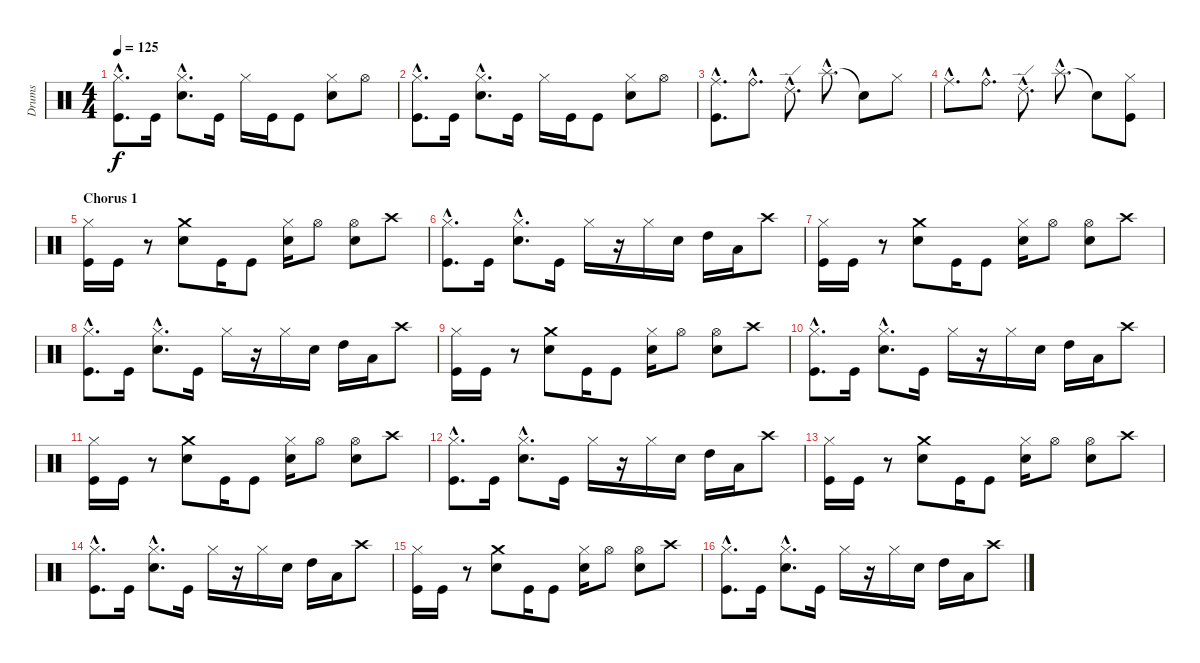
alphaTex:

\track ("Drums" "Drums") {instrument percussion}
\staff {score}
\articulation defaults
\ts (4 4)
\tempo 125
\clef neutral
\ks c
("Hi-Hat (closed)"{hac} "Kick (hit)"{hac}).8{d dy f} "Kick (hit)".16 ("Hi-Hat (closed)"{hac} "Electric Snare (hit)"{hac}).8{d} "Kick (hit)".16 "Hi-Hat (closed)".16 "Kick (hit)".16 "Kick (hit)".8 ("Hi-Hat (closed)" "Electric Snare (hit)").8 "Hi-Hat (open)".8 |
("Hi-Hat (closed)"{hac} "Kick (hit)"{hac}).8{d} "Kick (hit)".16 ("Hi-Hat (closed)"{hac} "Electric Snare (hit)"{hac}).8{d} "Kick (hit)".16 "Hi-Hat (closed)".16 "Kick (hit)".16 "Kick (hit)".8 ("Hi-Hat (closed)" "Electric Snare (hit)").8 "Hi-Hat (open)".8 |
("Ride (middle)"{hac} "Kick (hit)"{hac}).8{d} "Ride (bell)"{hac}.8{d} "Ride (edge) 2"{hac}.8{d} "Splash (hit)"{hac}.8{d} "Snare (hit)"{t}.8 "Hi-Hat (closed)".8 |
"Ride (middle)"{hac}.8{d} "Ride (bell)"{hac}.8{d} "Ride (edge) 2"{hac}.8{d} "Splash (hit)"{hac}.8{d} "Snare (hit)"{t}.8 ("Hi-Hat (closed)" "Kick (hit)").8 |
\section ("" "Chorus 1")
("Hi-Hat (closed)" "Kick (hit)").16 "Kick (hit)".16 r.8 ("Crash medium (hit)" "Electric Snare (hit)").8 "Kick (hit)".16 "Kick (hit)".8 ("Hi-Hat (closed)" "Electric Snare (hit)").16 "Hi-Hat (open)".8 ("Hi-Hat (open)" "Electric Snare (hit)").8 "Crash high (hit)".8 |
("Hi-Hat (closed)"{hac} "Kick (hit)"{hac}).8{d} "Kick (hit)".16 ("Hi-Hat (closed)"{hac} "Electric Snare (hit)"{hac}).8{d} "Kick (hit)".16 "Hi-Hat (closed)".16 r.16 "Hi-Hat (closed)".16 "Electric Snare (hit)".16 "High Tom (hit)".16 "Low Tom (hit)".16 "Crash high (hit)".8 |
("Hi-Hat (closed)" "Kick (hit)").16 "Kick (hit)".16 r.8 ("Crash medium (hit)" "Electric Snare (hit)").8 "Kick (hit)".16 "Kick (hit)".8 ("Hi-Hat (closed)" "Electric Snare (hit)").16 "Hi-Hat (open)".8 ("Hi-Hat (open)" "Electric Snare (hit)").8 "Crash high (hit)".8 |
("Hi-Hat (closed)"{hac} "Kick (hit)"{hac}).8{d} "Kick (hit)".16 ("Hi-Hat (closed)"{hac} "Electric Snare (hit)"{hac}).8{d} "Kick (hit)".16 "Hi-Hat (closed)".16 r.16 "Hi-Hat (closed)".16 "Electric Snare (hit)".16 "High Tom (hit)".16 "Low Tom (hit)".16 "Crash high (hit)".8 |
("Hi-Hat (closed)" "Kick (hit)").16 "Kick (hit)".16 r.8 ("Crash medium (hit)" "Electric Snare (hit)").8 "Kick (hit)".16 "Kick (hit)".8 ("Hi-Hat (closed)" "Electric Snare (hit)").16 "Hi-Hat (open)".8 ("Hi-Hat (open)" "Electric Snare (hit)").8 "Crash high (hit)".8 |
("Hi-Hat (closed)"{hac} "Kick (hit)"{hac}).8{d} "Kick (hit)".16 ("Hi-Hat (closed)"{hac} "Electric Snare (hit)"{hac}).8{d} "Kick (hit)".16 "Hi-Hat (closed)".16 r.16 "Hi-Hat (closed)".16 "Electric Snare (hit)".16 "High Tom (hit)".16 "Low Tom (hit)".16 "Crash high (hit)".8 |
("Hi-Hat (closed)" "Kick (hit)").16 "Kick (hit)".16 r.8 ("Crash medium (hit)" "Electric Snare (hit)").8 "Kick (hit)".16 "Kick (hit)".8 ("Hi-Hat (closed)" "Electric Snare (hit)").16 "Hi-Hat (open)".8 ("Hi-Hat (open)" "Electric Snare (hit)").8 "Crash high (hit)".8 |
("Hi-Hat (closed)"{hac} "Kick (hit)"{hac}).8{d} "Kick (hit)".16 ("Hi-Hat (closed)"{hac} "Electric Snare (hit)"{hac}).8{d} "Kick (hit)".16 "Hi-Hat (closed)".16 r.16 "Hi-Hat (closed)".16 "Electric Snare (hit)".16 "High Tom (hit)".16 "Low Tom (hit)".16 "Crash high (hit)".8 |
("Hi-Hat (closed)" "Kick (hit)").16 "Kick (hit)".16 r.8 ("Crash medium (hit)" "Electric Snare (hit)").8 "Kick (hit)".16 "Kick (hit)".8 ("Hi-Hat (closed)" "Electric Snare (hit)").16 "Hi-Hat (open)".8 ("Hi-Hat (open)" "Electric Snare (hit)").8 "Crash high (hit)".8 |
("Hi-Hat (closed)"{hac} "Kick (hit)"{hac}).8{d} "Kick (hit)".16 ("Hi-Hat (closed)"{hac} "Electric Snare (hit)"{hac}).8{d} "Kick (hit)".16 "Hi-Hat (closed)".16 r.16 "Hi-Hat (closed)".16 "Electric Snare (hit)".16 "High Tom (hit)".16 "Low Tom (hit)".16 "Crash high (hit)".8 |
("Hi-Hat (closed)" "Kick (hit)").16 "Kick (hit)".16 r.8 ("Crash medium (hit)" "Electric Snare (hit)").8 "Kick (hit)".16 "Kick (hit)".8 ("Hi-Hat (closed)" "Electric Snare (hit)").16 "Hi-Hat (open)".8 ("Hi-Hat (open)" "Electric Snare (hit)").8 "Crash high (hit)".8 |
("Hi-Hat (closed)"{hac} "Kick (hit)"{hac}).8{d} "Kick (hit)".16 ("Hi-Hat (closed)"{hac} "Electric Snare (hit)"{hac}).8{d} "Kick (hit)".16 "Hi-Hat (closed)".16 r.16 "Hi-Hat (closed)".16 "Electric Snare (hit)".16 "High Tom (hit)".16 "Low Tom (hit)".16 "Crash high (hit)".8
